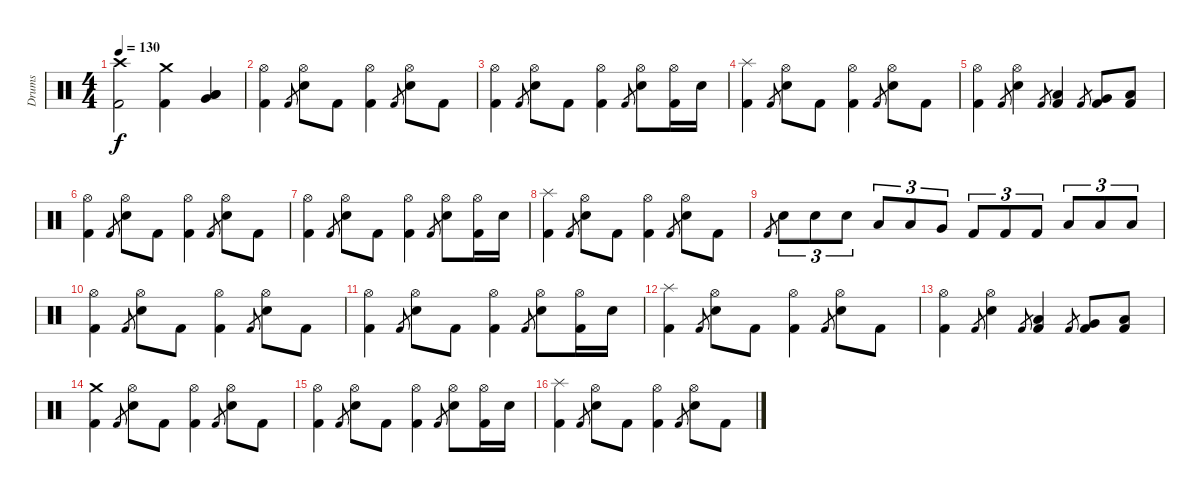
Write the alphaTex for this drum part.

\track ("Drums" "Drums") {instrument percussion}
\staff {score}
\articulation defaults
\ts (4 4)
\tempo 130
\clef neutral
\ks c
("Crash high (hit)" "Kick (hit) 2").2{dy f} ("Crash medium (hit)" "Kick (hit) 2").4 ("Very Low Tom (hit)" "Low Floor Tom (hit)" "Low Floor Tom (hit)").4 |
("Hi-Hat (open)" "Kick (hit) 2").4 "Kick (hit) 2".8{gr} ("Hi-Hat (open)" "Electric Snare (hit)").8 "Kick (hit) 2".8 ("Hi-Hat (open)" "Kick (hit) 2").4 "Kick (hit) 2".8{gr} ("Hi-Hat (open)" "Electric Snare (hit)").8 "Kick (hit) 2".8 |
("Hi-Hat (open)" "Kick (hit) 2").4 "Kick (hit) 2".8{gr} ("Hi-Hat (open)" "Electric Snare (hit)").8 "Kick (hit) 2".8 ("Hi-Hat (open)" "Kick (hit) 2").4 "Kick (hit) 2".8{gr} ("Hi-Hat (open)" "Electric Snare (hit)").8 ("Hi-Hat (open)" "Kick (hit) 2").16 "Electric Snare (hit)".16 |
("Splash (hit)" "Kick (hit) 2").4 "Kick (hit) 2".8{gr} ("Hi-Hat (open)" "Electric Snare (hit)").8 "Kick (hit) 2".8 ("Hi-Hat (open)" "Kick (hit) 2").4 "Kick (hit) 2".8{gr} ("Hi-Hat (open)" "Electric Snare (hit)").8 "Kick (hit) 2".8 |
("Hi-Hat (open)" "Kick (hit) 2").4 "Kick (hit) 2".8{gr} ("Hi-Hat (open)" "Electric Snare (hit)").4 "Kick (hit) 2".8{gr} ("Low Tom (hit)" "Kick (hit) 2").4 "Kick (hit) 2".8{gr} ("Very Low Tom (hit)" "Kick (hit) 2").8 ("Low Floor Tom (hit)" "Kick (hit) 2").8 |
("Hi-Hat (open)" "Kick (hit) 2").4 "Kick (hit) 2".8{gr} ("Hi-Hat (open)" "Electric Snare (hit)").8 "Kick (hit) 2".8 ("Hi-Hat (open)" "Kick (hit) 2").4 "Kick (hit) 2".8{gr} ("Hi-Hat (open)" "Electric Snare (hit)").8 "Kick (hit) 2".8 |
("Hi-Hat (open)" "Kick (hit) 2").4 "Kick (hit) 2".8{gr} ("Hi-Hat (open)" "Electric Snare (hit)").8 "Kick (hit) 2".8 ("Hi-Hat (open)" "Kick (hit) 2").4 "Kick (hit) 2".8{gr} ("Hi-Hat (open)" "Electric Snare (hit)").8 ("Hi-Hat (open)" "Kick (hit) 2").16 "Electric Snare (hit)".16 |
("Splash (hit)" "Kick (hit) 2").4 "Kick (hit) 2".8{gr} ("Hi-Hat (open)" "Electric Snare (hit)").8 "Kick (hit) 2".8 ("Hi-Hat (open)" "Kick (hit) 2").4 "Kick (hit) 2".8{gr} ("Hi-Hat (open)" "Electric Snare (hit)").8 "Kick (hit) 2".8 |
"Kick (hit) 2".8{gr} "Electric Snare (hit)".8{tu (3 2)} "Electric Snare (hit)".8{tu (3 2)} "Electric Snare (hit)".8{tu (3 2)} "Low Tom (hit)".8{tu (3 2)} "Low Tom (hit)".8{tu (3 2)} "Very Low Tom (hit)".8{tu (3 2)} "Kick (hit) 2".8{tu (3 2)} "Kick (hit) 2".8{tu (3 2)} "Kick (hit) 2".8{tu (3 2)} "Low Floor Tom (hit)".8{tu (3 2)} "Low Floor Tom (hit)".8{tu (3 2)} "Low Floor Tom (hit)".8{tu (3 2)} |
("Hi-Hat (open)" "Kick (hit) 2").4 "Kick (hit) 2".8{gr} ("Hi-Hat (open)" "Electric Snare (hit)").8 "Kick (hit) 2".8 ("Hi-Hat (open)" "Kick (hit) 2").4 "Kick (hit) 2".8{gr} ("Hi-Hat (open)" "Electric Snare (hit)").8 "Kick (hit) 2".8 |
("Hi-Hat (open)" "Kick (hit) 2").4 "Kick (hit) 2".8{gr} ("Hi-Hat (open)" "Electric Snare (hit)").8 "Kick (hit) 2".8 ("Hi-Hat (open)" "Kick (hit) 2").4 "Kick (hit) 2".8{gr} ("Hi-Hat (open)" "Electric Snare (hit)").8 ("Hi-Hat (open)" "Kick (hit) 2").16 "Electric Snare (hit)".16 |
("Splash (hit)" "Kick (hit) 2").4 "Kick (hit) 2".8{gr} ("Hi-Hat (open)" "Electric Snare (hit)").8 "Kick (hit) 2".8 ("Hi-Hat (open)" "Kick (hit) 2").4 "Kick (hit) 2".8{gr} ("Hi-Hat (open)" "Electric Snare (hit)").8 "Kick (hit) 2".8 |
("Hi-Hat (open)" "Kick (hit) 2").4 "Kick (hit) 2".8{gr} ("Hi-Hat (open)" "Electric Snare (hit)").4 "Kick (hit) 2".8{gr} ("Low Tom (hit)" "Kick (hit) 2").4 "Kick (hit) 2".8{gr} ("Very Low Tom (hit)" "Kick (hit) 2").8 ("Low Floor Tom (hit)" "Kick (hit) 2").8 |
("Crash medium (hit)" "Kick (hit) 2").4 "Kick (hit) 2".8{gr} ("Hi-Hat (open)" "Electric Snare (hit)").8 "Kick (hit) 2".8 ("Hi-Hat (open)" "Kick (hit) 2").4 "Kick (hit) 2".8{gr} ("Hi-Hat (open)" "Electric Snare (hit)").8 "Kick (hit) 2".8 |
("Hi-Hat (open)" "Kick (hit) 2").4 "Kick (hit) 2".8{gr} ("Hi-Hat (open)" "Electric Snare (hit)").8 "Kick (hit) 2".8 ("Hi-Hat (open)" "Kick (hit) 2").4 "Kick (hit) 2".8{gr} ("Hi-Hat (open)" "Electric Snare (hit)").8 ("Hi-Hat (open)" "Kick (hit) 2").16 "Electric Snare (hit)".16 |
("Splash (hit)" "Kick (hit) 2").4 "Kick (hit) 2".8{gr} ("Hi-Hat (open)" "Electric Snare (hit)").8 "Kick (hit) 2".8 ("Hi-Hat (open)" "Kick (hit) 2").4 "Kick (hit) 2".8{gr} ("Hi-Hat (open)" "Electric Snare (hit)").8 "Kick (hit) 2".8
